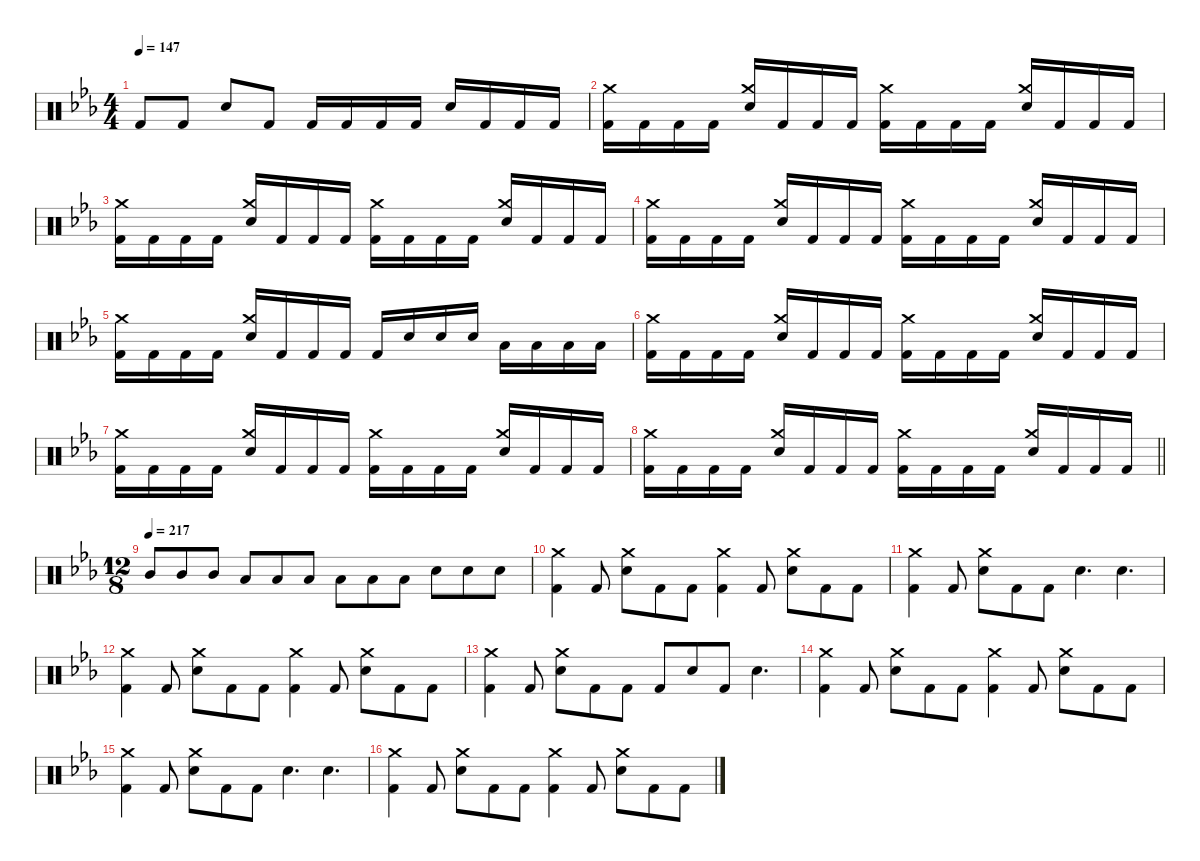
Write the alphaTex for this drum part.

\defaultSystemsLayout 4
\hideDynamics
\bracketExtendMode nobrackets
\singleTrackTrackNamePolicy hidden
\multiTrackTrackNamePolicy hidden
\firstSystemTrackNameMode fullname
\firstSystemTrackNameOrientation horizontal
\otherSystemsTrackNameOrientation horizontal
\track ("Beats" "drm.") {instrument percussion}
\staff {score}
\articulation defaults
\ts (4 4)
\tempo 147
\clef neutral
\ks eb "Kick (hit) 2"{acc forcenatural}.8{dy f beam Up} "Kick (hit) 2"{acc forcenatural}.8{beam Up} "Snare (hit) 2"{acc forcenatural}.8{beam Up} "Kick (hit) 2"{acc forcenatural}.8{beam Up} "Kick (hit) 2"{acc forcenatural}.16{beam Up} "Kick (hit) 2"{acc forcenatural}.16{beam Up} "Kick (hit) 2"{acc forcenatural}.16{beam Up} "Kick (hit) 2"{acc forcenatural}.16{beam Up} "Snare (hit) 2"{acc forcenatural}.16{beam Up} "Kick (hit) 2"{acc forcenatural}.16{beam Up} "Kick (hit) 2"{acc forcenatural}.16{beam Up} "Kick (hit) 2"{acc forcenatural}.16{beam Up}
|
("Crash medium (hit)"{acc forcenatural} "Kick (hit) 2"{acc forcenatural}).16{beam Down} "Kick (hit) 2"{acc forcenatural}.16{beam Down} "Kick (hit) 2"{acc forcenatural}.16{beam Down} "Kick (hit) 2"{acc forcenatural}.16{beam Down} ("Crash medium (hit)"{acc forcenatural} "Snare (hit) 2"{acc forcenatural}).16{beam Up} "Kick (hit) 2"{acc forcenatural}.16{beam Up} "Kick (hit) 2"{acc forcenatural}.16{beam Up} "Kick (hit) 2"{acc forcenatural}.16{beam Up} ("Crash medium (hit)"{acc forcenatural} "Kick (hit) 2"{acc forcenatural}).16{beam Down} "Kick (hit) 2"{acc forcenatural}.16{beam Down} "Kick (hit) 2"{acc forcenatural}.16{beam Down} "Kick (hit) 2"{acc forcenatural}.16{beam Down} ("Crash medium (hit)"{acc forcenatural} "Snare (hit) 2"{acc forcenatural}).16{beam Up} "Kick (hit) 2"{acc forcenatural}.16{beam Up} "Kick (hit) 2"{acc forcenatural}.16{beam Up} "Kick (hit) 2"{acc forcenatural}.16{beam Up} |
("Crash medium (hit)"{acc forcenatural} "Kick (hit) 2"{acc forcenatural}).16{beam Down} "Kick (hit) 2"{acc forcenatural}.16{beam Down} "Kick (hit) 2"{acc forcenatural}.16{beam Down} "Kick (hit) 2"{acc forcenatural}.16{beam Down} ("Crash medium (hit)"{acc forcenatural} "Snare (hit) 2"{acc forcenatural}).16{beam Up} "Kick (hit) 2"{acc forcenatural}.16{beam Up} "Kick (hit) 2"{acc forcenatural}.16{beam Up} "Kick (hit) 2"{acc forcenatural}.16{beam Up} ("Crash medium (hit)"{acc forcenatural} "Kick (hit) 2"{acc forcenatural}).16{beam Down} "Kick (hit) 2"{acc forcenatural}.16{beam Down} "Kick (hit) 2"{acc forcenatural}.16{beam Down} "Kick (hit) 2"{acc forcenatural}.16{beam Down} ("Crash medium (hit)"{acc forcenatural} "Snare (hit) 2"{acc forcenatural}).16{beam Up} "Kick (hit) 2"{acc forcenatural}.16{beam Up} "Kick (hit) 2"{acc forcenatural}.16{beam Up} "Kick (hit) 2"{acc forcenatural}.16{beam Up} |
("Crash medium (hit)"{acc forcenatural} "Kick (hit) 2"{acc forcenatural}).16{beam Down} "Kick (hit) 2"{acc forcenatural}.16{beam Down} "Kick (hit) 2"{acc forcenatural}.16{beam Down} "Kick (hit) 2"{acc forcenatural}.16{beam Down} ("Crash medium (hit)"{acc forcenatural} "Snare (hit) 2"{acc forcenatural}).16{beam Up} "Kick (hit) 2"{acc forcenatural}.16{beam Up} "Kick (hit) 2"{acc forcenatural}.16{beam Up} "Kick (hit) 2"{acc forcenatural}.16{beam Up} ("Crash medium (hit)"{acc forcenatural} "Kick (hit) 2"{acc forcenatural}).16{beam Down} "Kick (hit) 2"{acc forcenatural}.16{beam Down} "Kick (hit) 2"{acc forcenatural}.16{beam Down} "Kick (hit) 2"{acc forcenatural}.16{beam Down} ("Crash medium (hit)"{acc forcenatural} "Snare (hit) 2"{acc forcenatural}).16{beam Up} "Kick (hit) 2"{acc forcenatural}.16{beam Up} "Kick (hit) 2"{acc forcenatural}.16{beam Up} "Kick (hit) 2"{acc forcenatural}.16{beam Up} |
("Crash medium (hit)"{acc forcenatural} "Kick (hit) 2"{acc forcenatural}).16{beam Down} "Kick (hit) 2"{acc forcenatural}.16{beam Down} "Kick (hit) 2"{acc forcenatural}.16{beam Down} "Kick (hit) 2"{acc forcenatural}.16{beam Down} ("Crash medium (hit)"{acc forcenatural} "Snare (hit) 2"{acc forcenatural}).16{beam Up} "Kick (hit) 2"{acc forcenatural}.16{beam Up} "Kick (hit) 2"{acc forcenatural}.16{beam Up} "Kick (hit) 2"{acc forcenatural}.16{beam Up} "Kick (hit) 2"{acc forcenatural}.16{beam Up} "Snare (hit) 2"{acc forcenatural}.16{beam Up} "Snare (hit) 2"{acc forcenatural}.16{beam Up} "Snare (hit) 2"{acc forcenatural}.16{beam Up} "Low Tom (hit)"{acc forcenatural}.16{beam Down} "Low Tom (hit)"{acc forcenatural}.16{beam Down} "Low Floor Tom (hit)"{acc forcenatural}.16{beam Down} "Low Floor Tom (hit)"{acc forcenatural}.16{beam Down} |
("Crash medium (hit)"{acc forcenatural} "Kick (hit) 2"{acc forcenatural}).16{beam Down} "Kick (hit) 2"{acc forcenatural}.16{beam Down} "Kick (hit) 2"{acc forcenatural}.16{beam Down} "Kick (hit) 2"{acc forcenatural}.16{beam Down} ("Crash medium (hit)"{acc forcenatural} "Snare (hit) 2"{acc forcenatural}).16{beam Up} "Kick (hit) 2"{acc forcenatural}.16{beam Up} "Kick (hit) 2"{acc forcenatural}.16{beam Up} "Kick (hit) 2"{acc forcenatural}.16{beam Up} ("Crash medium (hit)"{acc forcenatural} "Kick (hit) 2"{acc forcenatural}).16{beam Down} "Kick (hit) 2"{acc forcenatural}.16{beam Down} "Kick (hit) 2"{acc forcenatural}.16{beam Down} "Kick (hit) 2"{acc forcenatural}.16{beam Down} ("Crash medium (hit)"{acc forcenatural} "Snare (hit) 2"{acc forcenatural}).16{beam Up} "Kick (hit) 2"{acc forcenatural}.16{beam Up} "Kick (hit) 2"{acc forcenatural}.16{beam Up} "Kick (hit) 2"{acc forcenatural}.16{beam Up} |
("Crash medium (hit)"{acc forcenatural} "Kick (hit) 2"{acc forcenatural}).16{beam Down} "Kick (hit) 2"{acc forcenatural}.16{beam Down} "Kick (hit) 2"{acc forcenatural}.16{beam Down} "Kick (hit) 2"{acc forcenatural}.16{beam Down} ("Crash medium (hit)"{acc forcenatural} "Snare (hit) 2"{acc forcenatural}).16{beam Up} "Kick (hit) 2"{acc forcenatural}.16{beam Up} "Kick (hit) 2"{acc forcenatural}.16{beam Up} "Kick (hit) 2"{acc forcenatural}.16{beam Up} ("Crash medium (hit)"{acc forcenatural} "Kick (hit) 2"{acc forcenatural}).16{beam Down} "Kick (hit) 2"{acc forcenatural}.16{beam Down} "Kick (hit) 2"{acc forcenatural}.16{beam Down} "Kick (hit) 2"{acc forcenatural}.16{beam Down} ("Crash medium (hit)"{acc forcenatural} "Snare (hit) 2"{acc forcenatural}).16{beam Up} "Kick (hit) 2"{acc forcenatural}.16{beam Up} "Kick (hit) 2"{acc forcenatural}.16{beam Up} "Kick (hit) 2"{acc forcenatural}.16{beam Up} |
\barLineRight lightlight
("Crash medium (hit)"{acc forcenatural} "Kick (hit) 2"{acc forcenatural}).16{beam Down} "Kick (hit) 2"{acc forcenatural}.16{beam Down} "Kick (hit) 2"{acc forcenatural}.16{beam Down} "Kick (hit) 2"{acc forcenatural}.16{beam Down} ("Crash medium (hit)"{acc forcenatural} "Snare (hit) 2"{acc forcenatural}).16{beam Up} "Kick (hit) 2"{acc forcenatural}.16{beam Up} "Kick (hit) 2"{acc forcenatural}.16{beam Up} "Kick (hit) 2"{acc forcenatural}.16{beam Up} ("Crash medium (hit)"{acc forcenatural} "Kick (hit) 2"{acc forcenatural}).16{beam Down} "Kick (hit) 2"{acc forcenatural}.16{beam Down} "Kick (hit) 2"{acc forcenatural}.16{beam Down} "Kick (hit) 2"{acc forcenatural}.16{beam Down} ("Crash medium (hit)"{acc forcenatural} "Snare (hit) 2"{acc forcenatural}).16{beam Up} "Kick (hit) 2"{acc forcenatural}.16{beam Up} "Kick (hit) 2"{acc forcenatural}.16{beam Up} "Kick (hit) 2"{acc forcenatural}.16{beam Up} |
\ts (12 8)
\beaming (8 3 3 3 3)
\tempo (217)
"Mid Tom (hit)"{acc forcenatural}.8{beam Up} "Mid Tom (hit)"{acc forcenatural}.8{beam Up} "Mid Tom (hit)"{acc forcenatural}.8{beam Up} "Low Tom (hit)"{acc forcenatural}.8{beam Up} "Low Tom (hit)"{acc forcenatural}.8{beam Up} "Low Tom (hit)"{acc forcenatural}.8{beam Up} "Low Floor Tom (hit)"{acc forcenatural}.8{beam Down} "Low Floor Tom (hit)"{acc forcenatural}.8{beam Down} "Low Floor Tom (hit)"{acc forcenatural}.8{beam Down} "Snare (hit) 2"{acc forcenatural}.8{beam Down} "Snare (hit) 2"{acc forcenatural}.8{beam Down} "Snare (hit) 2"{acc forcenatural}.8{beam Down} |
("Crash medium (hit)"{acc forcenatural} "Kick (hit) 2"{acc forcenatural}).4{beam Down} "Kick (hit) 2"{acc forcenatural}.8{beam Up} ("Crash medium (hit)"{acc forcenatural} "Snare (hit) 2"{acc forcenatural}).8{beam Down} "Kick (hit) 2"{acc forcenatural}.8{beam Down} "Kick (hit) 2"{acc forcenatural}.8{beam Down} ("Crash medium (hit)"{acc forcenatural} "Kick (hit) 2"{acc forcenatural}).4{beam Down} "Kick (hit) 2"{acc forcenatural}.8{beam Up} ("Crash medium (hit)"{acc forcenatural} "Snare (hit) 2"{acc forcenatural}).8{beam Down} "Kick (hit) 2"{acc forcenatural}.8{beam Down} "Kick (hit) 2"{acc forcenatural}.8{beam Down} |
("Crash medium (hit)"{acc forcenatural} "Kick (hit) 2"{acc forcenatural}).4{beam Down} "Kick (hit) 2"{acc forcenatural}.8{beam Up} ("Crash medium (hit)"{acc forcenatural} "Snare (hit) 2"{acc forcenatural}).8{beam Down} "Kick (hit) 2"{acc forcenatural}.8{beam Down} "Kick (hit) 2"{acc forcenatural}.8{beam Down} "Snare (hit) 2"{acc forcenatural}.4{d dy fff beam Down} "Snare (hit) 2"{acc forcenatural}.4{d beam Down} |
("Crash medium (hit)"{acc forcenatural} "Kick (hit) 2"{acc forcenatural}).4{dy f beam Down} "Kick (hit) 2"{acc forcenatural}.8{beam Up} ("Crash medium (hit)"{acc forcenatural} "Snare (hit) 2"{acc forcenatural}).8{beam Down} "Kick (hit) 2"{acc forcenatural}.8{beam Down} "Kick (hit) 2"{acc forcenatural}.8{beam Down} ("Crash medium (hit)"{acc forcenatural} "Kick (hit) 2"{acc forcenatural}).4{beam Down} "Kick (hit) 2"{acc forcenatural}.8{beam Up} ("Crash medium (hit)"{acc forcenatural} "Snare (hit) 2"{acc forcenatural}).8{beam Down} "Kick (hit) 2"{acc forcenatural}.8{beam Down} "Kick (hit) 2"{acc forcenatural}.8{beam Down} |
("Crash medium (hit)"{acc forcenatural} "Kick (hit) 2"{acc forcenatural}).4{beam Down} "Kick (hit) 2"{acc forcenatural}.8{beam Up} ("Crash medium (hit)"{acc forcenatural} "Snare (hit) 2"{acc forcenatural}).8{beam Down} "Kick (hit) 2"{acc forcenatural}.8{beam Down} "Kick (hit) 2"{acc forcenatural}.8{beam Down} "Kick (hit) 2"{acc forcenatural}.8{beam Up} "Snare (hit) 2"{acc forcenatural}.8{beam Up} "Kick (hit) 2"{acc forcenatural}.8{beam Up} "Snare (hit) 2"{acc forcenatural}.4{d beam Down} |
("Crash medium (hit)"{acc forcenatural} "Kick (hit) 2"{acc forcenatural}).4{beam Down} "Kick (hit) 2"{acc forcenatural}.8{beam Up} ("Crash medium (hit)"{acc forcenatural} "Snare (hit) 2"{acc forcenatural}).8{beam Down} "Kick (hit) 2"{acc forcenatural}.8{beam Down} "Kick (hit) 2"{acc forcenatural}.8{beam Down} ("Crash medium (hit)"{acc forcenatural} "Kick (hit) 2"{acc forcenatural}).4{beam Down} "Kick (hit) 2"{acc forcenatural}.8{beam Up} ("Crash medium (hit)"{acc forcenatural} "Snare (hit) 2"{acc forcenatural}).8{beam Down} "Kick (hit) 2"{acc forcenatural}.8{beam Down} "Kick (hit) 2"{acc forcenatural}.8{beam Down} |
("Crash medium (hit)"{acc forcenatural} "Kick (hit) 2"{acc forcenatural}).4{beam Down} "Kick (hit) 2"{acc forcenatural}.8{beam Up} ("Crash medium (hit)"{acc forcenatural} "Snare (hit) 2"{acc forcenatural}).8{beam Down} "Kick (hit) 2"{acc forcenatural}.8{beam Down} "Kick (hit) 2"{acc forcenatural}.8{beam Down} "Snare (hit) 2"{acc forcenatural}.4{d dy fff beam Down} "Snare (hit) 2"{acc forcenatural}.4{d beam Down} |
("Crash medium (hit)"{acc forcenatural} "Kick (hit) 2"{acc forcenatural}).4{dy f beam Down} "Kick (hit) 2"{acc forcenatural}.8{beam Up} ("Crash medium (hit)"{acc forcenatural} "Snare (hit) 2"{acc forcenatural}).8{beam Down} "Kick (hit) 2"{acc forcenatural}.8{beam Down} "Kick (hit) 2"{acc forcenatural}.8{beam Down} ("Crash medium (hit)"{acc forcenatural} "Kick (hit) 2"{acc forcenatural}).4{beam Down} "Kick (hit) 2"{acc forcenatural}.8{beam Up} ("Crash medium (hit)"{acc forcenatural} "Snare (hit) 2"{acc forcenatural}).8{beam Down} "Kick (hit) 2"{acc forcenatural}.8{beam Down} "Kick (hit) 2"{acc forcenatural}.8{beam Down}
